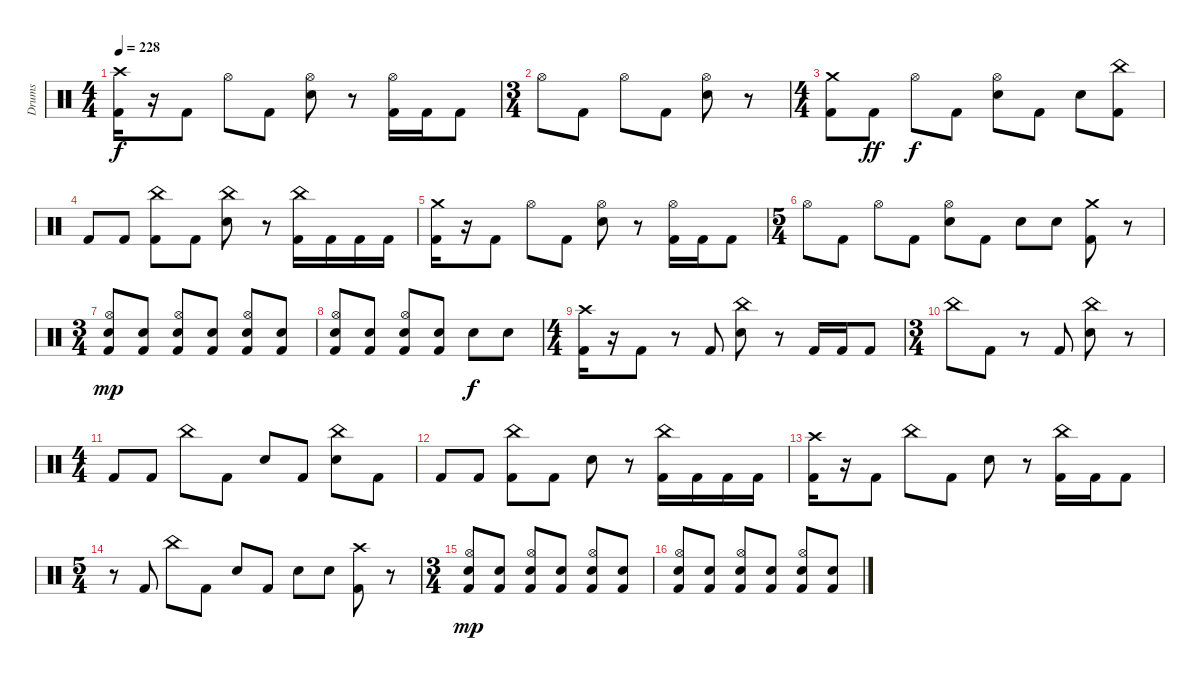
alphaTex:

\track ("Drums" "Drums") {instrument percussion}
\staff {score}
\articulation defaults
\ts (4 4)
\tempo 228
\clef neutral
\ks c
("Crash high (hit)" "Kick (hit) 2").16{dy f} r.16 "Kick (hit) 2".8 "Hi-Hat (open)".8 "Kick (hit) 2".8 ("Hi-Hat (open)" "Electric Snare (hit)").8 r.8 ("Hi-Hat (open)" "Kick (hit) 2").16 "Kick (hit) 2".16 "Kick (hit) 2".8 |
\ts (3 4)
"Hi-Hat (open)".8 "Kick (hit) 2".8 "Hi-Hat (open)".8 "Kick (hit) 2".8 ("Hi-Hat (open)" "Electric Snare (hit)").8 r.8 |
\ts (4 4)
("Crash medium (hit)" "Kick (hit) 2").8 "Kick (hit) 2".8{dy ff} "Hi-Hat (open)".8{dy f} "Kick (hit) 2".8 ("Hi-Hat (open)" "Electric Snare (hit)").8 "Kick (hit) 2".8 "Electric Snare (hit)".8 ("China (hit)" "Kick (hit) 2").8 |
"Kick (hit) 2".8 "Kick (hit) 2".8 ("China (hit)" "Kick (hit) 2").8 "Kick (hit) 2".8 ("China (hit)" "Electric Snare (hit)").8 r.8 ("China (hit)" "Kick (hit) 2").16 "Kick (hit) 2".16 "Kick (hit) 2".16 "Kick (hit) 2".16 |
("Crash medium (hit)" "Kick (hit) 2").16 r.16 "Kick (hit) 2".8 "Hi-Hat (open)".8 "Kick (hit) 2".8 ("Hi-Hat (open)" "Electric Snare (hit)").8 r.8 ("Hi-Hat (open)" "Kick (hit) 2").16 "Kick (hit) 2".16 "Kick (hit) 2".8 |
\ts (5 4)
"Hi-Hat (open)".8 "Kick (hit) 2".8 "Hi-Hat (open)".8 "Kick (hit) 2".8 ("Hi-Hat (open)" "Electric Snare (hit)").8 "Kick (hit) 2".8 "Electric Snare (hit)".8 "Electric Snare (hit)".8 ("Crash medium (hit)" "Kick (hit) 2").8 r.8 |
\ts (3 4)
("Hi-Hat (open)" "Electric Snare (hit)" "Kick (hit) 2").8{dy mp} ("Electric Snare (hit)" "Kick (hit) 2").8 ("Hi-Hat (open)" "Electric Snare (hit)" "Kick (hit) 2").8 ("Electric Snare (hit)" "Kick (hit) 2").8 ("Hi-Hat (open)" "Electric Snare (hit)" "Kick (hit) 2").8 ("Electric Snare (hit)" "Kick (hit) 2").8 |
("Hi-Hat (open)" "Electric Snare (hit)" "Kick (hit) 2").8 ("Electric Snare (hit)" "Kick (hit) 2").8 ("Hi-Hat (open)" "Electric Snare (hit)" "Kick (hit) 2").8 ("Electric Snare (hit)" "Kick (hit) 2").8 "Electric Snare (hit)".8{dy f} "Electric Snare (hit)".8 |
\ts (4 4)
("Crash high (hit)" "Kick (hit) 2").16 r.16 "Kick (hit) 2".8 r.8 "Kick (hit) 2".8 ("China (hit)" "Electric Snare (hit)").8 r.8 "Kick (hit) 2".16 "Kick (hit) 2".16 "Kick (hit) 2".8 |
\ts (3 4)
"China (hit)".8 "Kick (hit) 2".8 r.8 "Kick (hit) 2".8 ("China (hit)" "Electric Snare (hit)").8 r.8 |
\ts (4 4)
"Kick (hit) 2".8 "Kick (hit) 2".8 "China (hit)".8 "Kick (hit) 2".8 "Electric Snare (hit)".8 "Kick (hit) 2".8 ("Electric Snare (hit)" "China (hit)").8 "Kick (hit) 2".8 |
"Kick (hit) 2".8 "Kick (hit) 2".8 ("China (hit)" "Kick (hit) 2").8 "Kick (hit) 2".8 "Electric Snare (hit)".8 r.8 ("China (hit)" "Kick (hit) 2").16 "Kick (hit) 2".16 "Kick (hit) 2".16 "Kick (hit) 2".16 |
("Crash high (hit)" "Kick (hit) 2").16 r.16 "Kick (hit) 2".8 "China (hit)".8 "Kick (hit) 2".8 "Electric Snare (hit)".8 r.8 ("China (hit)" "Kick (hit) 2").16 "Kick (hit) 2".16 "Kick (hit) 2".8 |
\ts (5 4)
r.8 "Kick (hit) 2".8 "China (hit)".8 "Kick (hit) 2".8 "Electric Snare (hit)".8 "Kick (hit) 2".8 "Electric Snare (hit)".8 "Electric Snare (hit)".8 ("Crash high (hit)" "Kick (hit) 2").8 r.8 |
\ts (3 4)
("Hi-Hat (open)" "Electric Snare (hit)" "Kick (hit) 2").8{dy mp} ("Electric Snare (hit)" "Kick (hit) 2").8 ("Hi-Hat (open)" "Electric Snare (hit)" "Kick (hit) 2").8 ("Electric Snare (hit)" "Kick (hit) 2").8 ("Hi-Hat (open)" "Electric Snare (hit)" "Kick (hit) 2").8 ("Electric Snare (hit)" "Kick (hit) 2").8 |
("Hi-Hat (open)" "Electric Snare (hit)" "Kick (hit) 2").8 ("Electric Snare (hit)" "Kick (hit) 2").8 ("Hi-Hat (open)" "Electric Snare (hit)" "Kick (hit) 2").8 ("Electric Snare (hit)" "Kick (hit) 2").8 ("Hi-Hat (open)" "Electric Snare (hit)" "Kick (hit) 2").8 ("Electric Snare (hit)" "Kick (hit) 2").8
